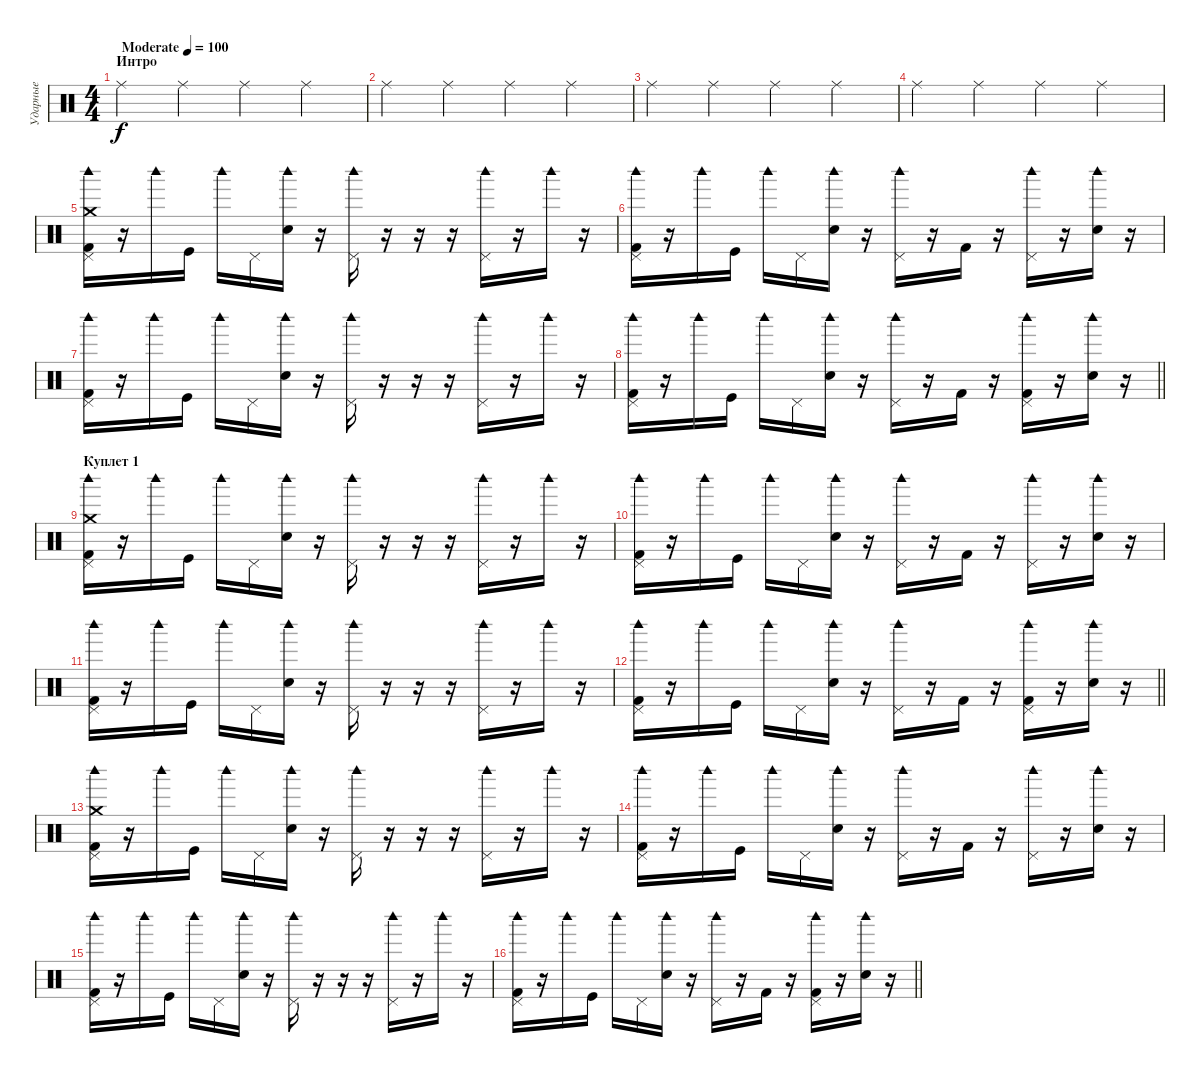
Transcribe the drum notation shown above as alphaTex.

\track ("Ударные" "Ударные") {instrument percussion}
\staff {score}
\articulation defaults
\ts (4 4)
\section ("" "Интро")
\tempo (100 "Moderate")
\clef neutral
\ks c "Ride (middle)".4{dy f} "Ride (middle)".4 "Ride (middle)".4 "Ride (middle)".4
|
"Ride (middle)".4 "Ride (middle)".4 "Ride (middle)".4 "Ride (middle)".4 |
"Ride (middle)".4 "Ride (middle)".4 "Ride (middle)".4 "Ride (middle)".4 |
"Ride (middle)".4 "Ride (middle)".4 "Ride (middle)".4 "Ride (middle)".4 |
("Crash medium (hit)" "Kick (hit) 2" "Pedal Hi-Hat (hit)" "Woodblock high (hit)").16 r.16 "Woodblock high (hit)".16 "Kick (hit)".16 "Woodblock high (hit)".16 "Pedal Hi-Hat (hit)".16 ("Snare (hit) 2" "Woodblock high (hit)").16 r.16 ("Pedal Hi-Hat (hit)" "Woodblock high (hit)").16 r.16 r.16 r.16 ("Pedal Hi-Hat (hit)" "Woodblock high (hit)").16 r.16 "Woodblock high (hit)".16 r.16 |
("Kick (hit) 2" "Pedal Hi-Hat (hit)" "Woodblock high (hit)").16 r.16 "Woodblock high (hit)".16 "Kick (hit)".16 "Woodblock high (hit)".16 "Pedal Hi-Hat (hit)".16 ("Snare (hit) 2" "Woodblock high (hit)").16 r.16 ("Pedal Hi-Hat (hit)" "Woodblock high (hit)").16 r.16 "Kick (hit) 2".16 r.16 ("Pedal Hi-Hat (hit)" "Woodblock high (hit)").16 r.16 ("Snare (hit) 2" "Woodblock high (hit)").16 r.16 |
("Kick (hit) 2" "Pedal Hi-Hat (hit)" "Woodblock high (hit)").16 r.16 "Woodblock high (hit)".16 "Kick (hit)".16 "Woodblock high (hit)".16 "Pedal Hi-Hat (hit)".16 ("Snare (hit) 2" "Woodblock high (hit)").16 r.16 ("Pedal Hi-Hat (hit)" "Woodblock high (hit)").16 r.16 r.16 r.16 ("Pedal Hi-Hat (hit)" "Woodblock high (hit)").16 r.16 "Woodblock high (hit)".16 r.16 |
\barLineRight lightlight
("Kick (hit) 2" "Pedal Hi-Hat (hit)" "Woodblock high (hit)").16 r.16 "Woodblock high (hit)".16 "Kick (hit)".16 "Woodblock high (hit)".16 "Pedal Hi-Hat (hit)".16 ("Snare (hit) 2" "Woodblock high (hit)").16 r.16 ("Pedal Hi-Hat (hit)" "Woodblock high (hit)").16 r.16 "Kick (hit) 2".16 r.16 ("Kick (hit) 2" "Pedal Hi-Hat (hit)" "Woodblock high (hit)").16 r.16 ("Snare (hit) 2" "Woodblock high (hit)").16 r.16 |
\section ("" "Куплет 1")
("Crash medium (hit)" "Kick (hit) 2" "Pedal Hi-Hat (hit)" "Woodblock high (hit)").16 r.16 "Woodblock high (hit)".16 "Kick (hit)".16 "Woodblock high (hit)".16 "Pedal Hi-Hat (hit)".16 ("Snare (hit) 2" "Woodblock high (hit)").16 r.16 ("Pedal Hi-Hat (hit)" "Woodblock high (hit)").16 r.16 r.16 r.16 ("Pedal Hi-Hat (hit)" "Woodblock high (hit)").16 r.16 "Woodblock high (hit)".16 r.16 |
("Kick (hit) 2" "Pedal Hi-Hat (hit)" "Woodblock high (hit)").16 r.16 "Woodblock high (hit)".16 "Kick (hit)".16 "Woodblock high (hit)".16 "Pedal Hi-Hat (hit)".16 ("Snare (hit) 2" "Woodblock high (hit)").16 r.16 ("Pedal Hi-Hat (hit)" "Woodblock high (hit)").16 r.16 "Kick (hit) 2".16 r.16 ("Pedal Hi-Hat (hit)" "Woodblock high (hit)").16 r.16 ("Snare (hit) 2" "Woodblock high (hit)").16 r.16 |
("Kick (hit) 2" "Pedal Hi-Hat (hit)" "Woodblock high (hit)").16 r.16 "Woodblock high (hit)".16 "Kick (hit)".16 "Woodblock high (hit)".16 "Pedal Hi-Hat (hit)".16 ("Snare (hit) 2" "Woodblock high (hit)").16 r.16 ("Pedal Hi-Hat (hit)" "Woodblock high (hit)").16 r.16 r.16 r.16 ("Pedal Hi-Hat (hit)" "Woodblock high (hit)").16 r.16 "Woodblock high (hit)".16 r.16 |
\barLineRight lightlight
("Kick (hit) 2" "Pedal Hi-Hat (hit)" "Woodblock high (hit)").16 r.16 "Woodblock high (hit)".16 "Kick (hit)".16 "Woodblock high (hit)".16 "Pedal Hi-Hat (hit)".16 ("Snare (hit) 2" "Woodblock high (hit)").16 r.16 ("Pedal Hi-Hat (hit)" "Woodblock high (hit)").16 r.16 "Kick (hit) 2".16 r.16 ("Kick (hit) 2" "Pedal Hi-Hat (hit)" "Woodblock high (hit)").16 r.16 ("Snare (hit) 2" "Woodblock high (hit)").16 r.16 |
("Crash medium (hit)" "Kick (hit) 2" "Pedal Hi-Hat (hit)" "Woodblock high (hit)").16 r.16 "Woodblock high (hit)".16 "Kick (hit)".16 "Woodblock high (hit)".16 "Pedal Hi-Hat (hit)".16 ("Snare (hit) 2" "Woodblock high (hit)").16 r.16 ("Pedal Hi-Hat (hit)" "Woodblock high (hit)").16 r.16 r.16 r.16 ("Pedal Hi-Hat (hit)" "Woodblock high (hit)").16 r.16 "Woodblock high (hit)".16 r.16 |
("Kick (hit) 2" "Pedal Hi-Hat (hit)" "Woodblock high (hit)").16 r.16 "Woodblock high (hit)".16 "Kick (hit)".16 "Woodblock high (hit)".16 "Pedal Hi-Hat (hit)".16 ("Snare (hit) 2" "Woodblock high (hit)").16 r.16 ("Pedal Hi-Hat (hit)" "Woodblock high (hit)").16 r.16 "Kick (hit) 2".16 r.16 ("Pedal Hi-Hat (hit)" "Woodblock high (hit)").16 r.16 ("Snare (hit) 2" "Woodblock high (hit)").16 r.16 |
("Kick (hit) 2" "Pedal Hi-Hat (hit)" "Woodblock high (hit)").16 r.16 "Woodblock high (hit)".16 "Kick (hit)".16 "Woodblock high (hit)".16 "Pedal Hi-Hat (hit)".16 ("Snare (hit) 2" "Woodblock high (hit)").16 r.16 ("Pedal Hi-Hat (hit)" "Woodblock high (hit)").16 r.16 r.16 r.16 ("Pedal Hi-Hat (hit)" "Woodblock high (hit)").16 r.16 "Woodblock high (hit)".16 r.16 |
\barLineRight lightlight
("Kick (hit) 2" "Pedal Hi-Hat (hit)" "Woodblock high (hit)").16 r.16 "Woodblock high (hit)".16 "Kick (hit)".16 "Woodblock high (hit)".16 "Pedal Hi-Hat (hit)".16 ("Snare (hit) 2" "Woodblock high (hit)").16 r.16 ("Pedal Hi-Hat (hit)" "Woodblock high (hit)").16 r.16 "Kick (hit) 2".16 r.16 ("Kick (hit) 2" "Pedal Hi-Hat (hit)" "Woodblock high (hit)").16 r.16 ("Snare (hit) 2" "Woodblock high (hit)").16 r.16
